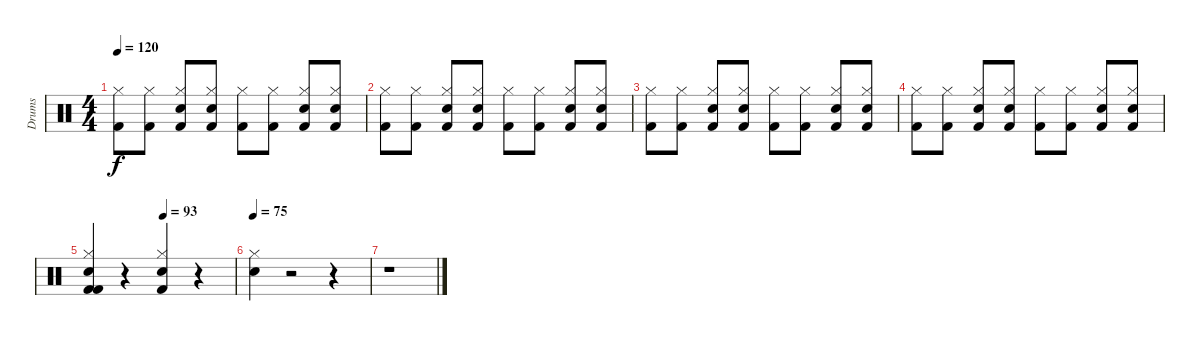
\track ("Drums" "Drums") {instrument percussion}
\staff {score}
\articulation defaults
\ts (4 4)
\section ("" "")
\tempo 120
\clef neutral
\ks c
("Kick (hit) 2" "Hi-Hat (closed)").8{dy f} ("Kick (hit) 2" "Hi-Hat (closed)").8 ("Kick (hit) 2" "Snare (hit) 2" "Hi-Hat (closed)").8 ("Kick (hit) 2" "Snare (hit) 2" "Hi-Hat (closed)").8 ("Kick (hit) 2" "Hi-Hat (closed)").8 ("Kick (hit) 2" "Hi-Hat (closed)").8 ("Kick (hit) 2" "Snare (hit) 2" "Hi-Hat (closed)").8 ("Kick (hit) 2" "Snare (hit) 2" "Hi-Hat (closed)").8 |
("Kick (hit) 2" "Hi-Hat (closed)").8 ("Kick (hit) 2" "Hi-Hat (closed)").8 ("Kick (hit) 2" "Snare (hit) 2" "Hi-Hat (closed)").8 ("Kick (hit) 2" "Snare (hit) 2" "Hi-Hat (closed)").8 ("Kick (hit) 2" "Hi-Hat (closed)").8 ("Kick (hit) 2" "Hi-Hat (closed)").8 ("Kick (hit) 2" "Snare (hit) 2" "Hi-Hat (closed)").8 ("Kick (hit) 2" "Snare (hit) 2" "Hi-Hat (closed)").8 |
("Kick (hit) 2" "Hi-Hat (closed)").8 ("Kick (hit) 2" "Hi-Hat (closed)").8 ("Kick (hit) 2" "Snare (hit) 2" "Hi-Hat (closed)").8 ("Kick (hit) 2" "Snare (hit) 2" "Hi-Hat (closed)").8 ("Kick (hit) 2" "Hi-Hat (closed)").8 ("Kick (hit) 2" "Hi-Hat (closed)").8 ("Kick (hit) 2" "Snare (hit) 2" "Hi-Hat (closed)").8 ("Kick (hit) 2" "Snare (hit) 2" "Hi-Hat (closed)").8 |
("Kick (hit) 2" "Hi-Hat (closed)").8 ("Kick (hit) 2" "Hi-Hat (closed)").8 ("Kick (hit) 2" "Snare (hit) 2" "Hi-Hat (closed)").8 ("Kick (hit) 2" "Snare (hit) 2" "Hi-Hat (closed)").8 ("Kick (hit) 2" "Hi-Hat (closed)").8 ("Kick (hit) 2" "Hi-Hat (closed)").8 ("Kick (hit) 2" "Snare (hit) 2" "Hi-Hat (closed)").8 ("Kick (hit) 2" "Snare (hit) 2" "Hi-Hat (closed)").8 |
\tempo (93 0.5)
("Kick (hit) 2" "Kick (hit) 2" "Snare (hit) 2" "Hi-Hat (closed)").4 r.4 ("Kick (hit) 2" "Snare (hit) 2" "Hi-Hat (closed)").4 r.4 |
\tempo 75
("Snare (hit) 2" "Hi-Hat (closed)").4 r.2 r.4 |
r.1
